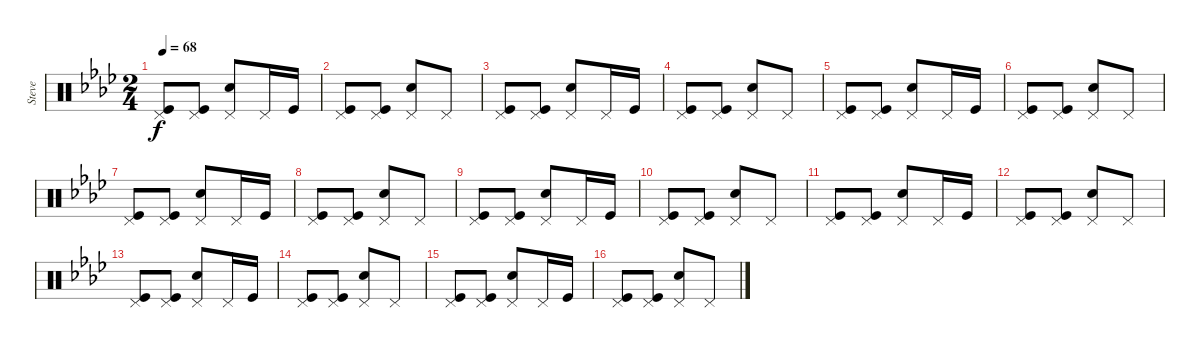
\track ("Steve" "Steve") {instrument percussion}
\staff {score}
\articulation defaults
\ts (2 4)
\tempo 68
\clef neutral
\ks fminor
("Kick (hit)" "Pedal Hi-Hat (hit)").8{dy f} ("Kick (hit)" "Pedal Hi-Hat (hit)").8 ("Electric Snare (hit)" "Pedal Hi-Hat (hit)").8 "Pedal Hi-Hat (hit)".16 "Kick (hit)".16 |
("Kick (hit)" "Pedal Hi-Hat (hit)").8 ("Kick (hit)" "Pedal Hi-Hat (hit)").8 ("Electric Snare (hit)" "Pedal Hi-Hat (hit)").8 "Pedal Hi-Hat (hit)".8 |
("Kick (hit)" "Pedal Hi-Hat (hit)").8 ("Kick (hit)" "Pedal Hi-Hat (hit)").8 ("Electric Snare (hit)" "Pedal Hi-Hat (hit)").8 "Pedal Hi-Hat (hit)".16 "Kick (hit)".16 |
("Kick (hit)" "Pedal Hi-Hat (hit)").8 ("Kick (hit)" "Pedal Hi-Hat (hit)").8 ("Electric Snare (hit)" "Pedal Hi-Hat (hit)").8 "Pedal Hi-Hat (hit)".8 |
("Kick (hit)" "Pedal Hi-Hat (hit)").8 ("Kick (hit)" "Pedal Hi-Hat (hit)").8 ("Electric Snare (hit)" "Pedal Hi-Hat (hit)").8 "Pedal Hi-Hat (hit)".16 "Kick (hit)".16 |
("Kick (hit)" "Pedal Hi-Hat (hit)").8 ("Kick (hit)" "Pedal Hi-Hat (hit)").8 ("Electric Snare (hit)" "Pedal Hi-Hat (hit)").8 "Pedal Hi-Hat (hit)".8 |
("Kick (hit)" "Pedal Hi-Hat (hit)").8 ("Kick (hit)" "Pedal Hi-Hat (hit)").8 ("Electric Snare (hit)" "Pedal Hi-Hat (hit)").8 "Pedal Hi-Hat (hit)".16 "Kick (hit)".16 |
("Kick (hit)" "Pedal Hi-Hat (hit)").8 ("Kick (hit)" "Pedal Hi-Hat (hit)").8 ("Electric Snare (hit)" "Pedal Hi-Hat (hit)").8 "Pedal Hi-Hat (hit)".8 |
("Kick (hit)" "Pedal Hi-Hat (hit)").8 ("Kick (hit)" "Pedal Hi-Hat (hit)").8 ("Electric Snare (hit)" "Pedal Hi-Hat (hit)").8 "Pedal Hi-Hat (hit)".16 "Kick (hit)".16 |
("Kick (hit)" "Pedal Hi-Hat (hit)").8 ("Kick (hit)" "Pedal Hi-Hat (hit)").8 ("Electric Snare (hit)" "Pedal Hi-Hat (hit)").8 "Pedal Hi-Hat (hit)".8 |
("Kick (hit)" "Pedal Hi-Hat (hit)").8 ("Kick (hit)" "Pedal Hi-Hat (hit)").8 ("Electric Snare (hit)" "Pedal Hi-Hat (hit)").8 "Pedal Hi-Hat (hit)".16 "Kick (hit)".16 |
("Kick (hit)" "Pedal Hi-Hat (hit)").8 ("Kick (hit)" "Pedal Hi-Hat (hit)").8 ("Electric Snare (hit)" "Pedal Hi-Hat (hit)").8 "Pedal Hi-Hat (hit)".8 |
("Kick (hit)" "Pedal Hi-Hat (hit)").8 ("Kick (hit)" "Pedal Hi-Hat (hit)").8 ("Electric Snare (hit)" "Pedal Hi-Hat (hit)").8 "Pedal Hi-Hat (hit)".16 "Kick (hit)".16 |
("Kick (hit)" "Pedal Hi-Hat (hit)").8 ("Kick (hit)" "Pedal Hi-Hat (hit)").8 ("Electric Snare (hit)" "Pedal Hi-Hat (hit)").8 "Pedal Hi-Hat (hit)".8 |
("Kick (hit)" "Pedal Hi-Hat (hit)").8 ("Kick (hit)" "Pedal Hi-Hat (hit)").8 ("Electric Snare (hit)" "Pedal Hi-Hat (hit)").8 "Pedal Hi-Hat (hit)".16 "Kick (hit)".16 |
("Kick (hit)" "Pedal Hi-Hat (hit)").8 ("Kick (hit)" "Pedal Hi-Hat (hit)").8 ("Electric Snare (hit)" "Pedal Hi-Hat (hit)").8 "Pedal Hi-Hat (hit)".8
